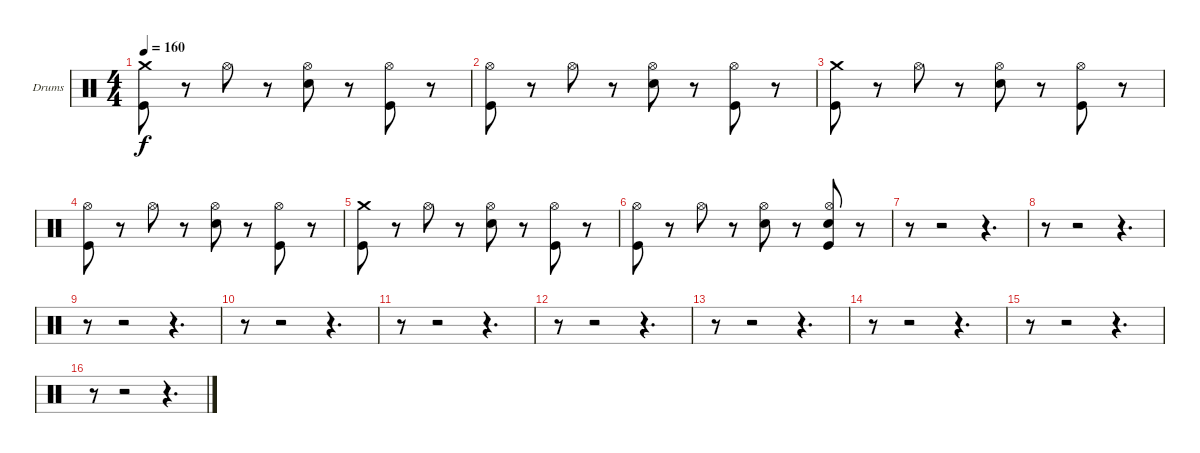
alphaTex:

\bracketExtendMode groupsimilarinstruments
\firstSystemTrackNameOrientation horizontal
\otherSystemsTrackNameOrientation horizontal
\track ("Drumkit" "Drums") {instrument percussion}
\staff {score}
\articulation defaults
\ts (4 4)
\tempo 160
\clef neutral
\ks c
("Crash medium (hit)" "Kick (hit)").8{dy f} r.8 "Hi-Hat (open)".8 r.8 ("Hi-Hat (open)" "Snare (hit) 2").8 r.8 ("Hi-Hat (open)" "Kick (hit)").8 r.8 |
("Hi-Hat (open)" "Kick (hit)").8 r.8 "Hi-Hat (open)".8 r.8 ("Hi-Hat (open)" "Snare (hit) 2").8 r.8 ("Hi-Hat (open)" "Kick (hit)").8 r.8 |
("Crash medium (hit)" "Kick (hit)").8 r.8 "Hi-Hat (open)".8 r.8 ("Hi-Hat (open)" "Snare (hit) 2").8 r.8 ("Hi-Hat (open)" "Kick (hit)").8 r.8 |
("Hi-Hat (open)" "Kick (hit)").8 r.8 "Hi-Hat (open)".8 r.8 ("Hi-Hat (open)" "Snare (hit) 2").8 r.8 ("Hi-Hat (open)" "Kick (hit)").8 r.8 |
("Crash medium (hit)" "Kick (hit)").8 r.8 "Hi-Hat (open)".8 r.8 ("Hi-Hat (open)" "Snare (hit) 2").8 r.8 ("Hi-Hat (open)" "Kick (hit)").8 r.8 |
("Hi-Hat (open)" "Kick (hit)").8 r.8 "Hi-Hat (open)".8 r.8 ("Hi-Hat (open)" "Snare (hit) 2").8 r.8 ("Hi-Hat (open)" "Snare (hit) 2" "Kick (hit)").8 r.8 |
r.8 r.2 r.4{d} |
r.8 r.2 r.4{d} |
r.8 r.2 r.4{d} |
r.8 r.2 r.4{d} |
r.8 r.2 r.4{d} |
r.8 r.2 r.4{d} |
r.8 r.2 r.4{d} |
r.8 r.2 r.4{d} |
r.8 r.2 r.4{d} |
r.8 r.2 r.4{d}
